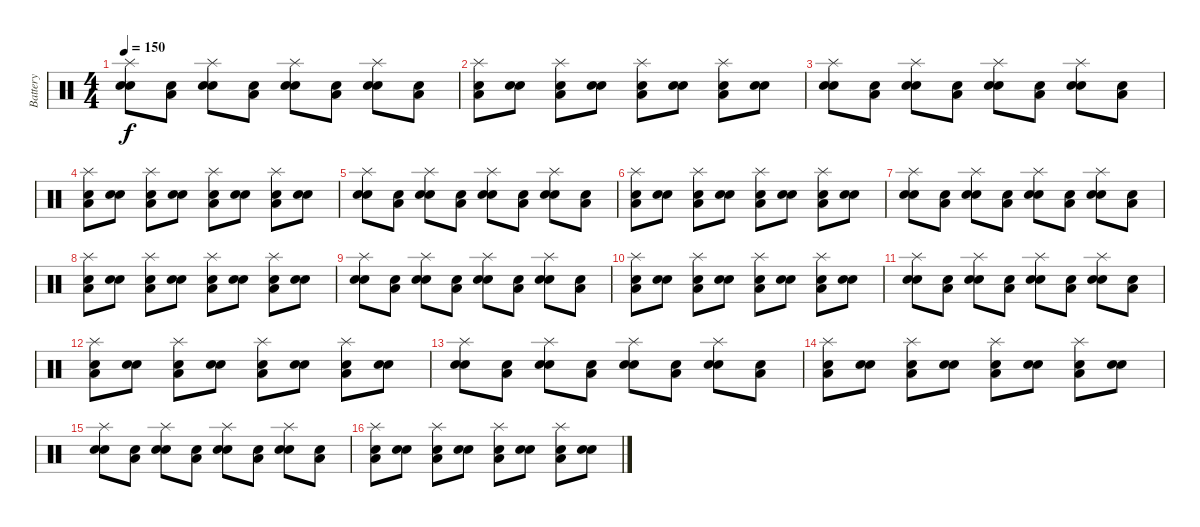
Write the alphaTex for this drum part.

\track ("Battery" "Battery") {instrument percussion}
\staff {score}
\articulation defaults
\ts (4 4)
\tempo 150
\clef neutral
\ks c
("Snare (hit) 2" "Splash (hit)" "Electric Snare (hit)").8{dy f} ("Snare (hit) 2" "Low Floor Tom (hit)").8 ("Snare (hit) 2" "Splash (hit)" "Electric Snare (hit)").8 ("Snare (hit) 2" "Low Floor Tom (hit)").8 ("Snare (hit) 2" "Splash (hit)" "Electric Snare (hit)").8 ("Snare (hit) 2" "Low Floor Tom (hit)").8 ("Snare (hit) 2" "Splash (hit)" "Electric Snare (hit)").8 ("Snare (hit) 2" "Low Floor Tom (hit)").8 |
("Snare (hit) 2" "Splash (hit)" "Low Floor Tom (hit)").8 ("Snare (hit) 2" "Electric Snare (hit)").8 ("Snare (hit) 2" "Splash (hit)" "Low Floor Tom (hit)").8 ("Snare (hit) 2" "Electric Snare (hit)").8 ("Snare (hit) 2" "Splash (hit)" "Low Floor Tom (hit)").8 ("Snare (hit) 2" "Electric Snare (hit)").8 ("Snare (hit) 2" "Splash (hit)" "Low Floor Tom (hit)").8 ("Snare (hit) 2" "Electric Snare (hit)").8 |
("Snare (hit) 2" "Splash (hit)" "Electric Snare (hit)").8 ("Snare (hit) 2" "Low Floor Tom (hit)").8 ("Snare (hit) 2" "Splash (hit)" "Electric Snare (hit)").8 ("Snare (hit) 2" "Low Floor Tom (hit)").8 ("Snare (hit) 2" "Splash (hit)" "Electric Snare (hit)").8 ("Snare (hit) 2" "Low Floor Tom (hit)").8 ("Snare (hit) 2" "Splash (hit)" "Electric Snare (hit)").8 ("Snare (hit) 2" "Low Floor Tom (hit)").8 |
("Snare (hit) 2" "Splash (hit)" "Low Floor Tom (hit)").8 ("Snare (hit) 2" "Electric Snare (hit)").8 ("Snare (hit) 2" "Splash (hit)" "Low Floor Tom (hit)").8 ("Snare (hit) 2" "Electric Snare (hit)").8 ("Snare (hit) 2" "Splash (hit)" "Low Floor Tom (hit)").8 ("Snare (hit) 2" "Electric Snare (hit)").8 ("Snare (hit) 2" "Splash (hit)" "Low Floor Tom (hit)").8 ("Snare (hit) 2" "Electric Snare (hit)").8 |
("Snare (hit) 2" "Splash (hit)" "Electric Snare (hit)").8 ("Snare (hit) 2" "Low Floor Tom (hit)").8 ("Snare (hit) 2" "Splash (hit)" "Electric Snare (hit)").8 ("Snare (hit) 2" "Low Floor Tom (hit)").8 ("Snare (hit) 2" "Splash (hit)" "Electric Snare (hit)").8 ("Snare (hit) 2" "Low Floor Tom (hit)").8 ("Snare (hit) 2" "Splash (hit)" "Electric Snare (hit)").8 ("Snare (hit) 2" "Low Floor Tom (hit)").8 |
("Snare (hit) 2" "Splash (hit)" "Low Floor Tom (hit)").8 ("Snare (hit) 2" "Electric Snare (hit)").8 ("Snare (hit) 2" "Splash (hit)" "Low Floor Tom (hit)").8 ("Snare (hit) 2" "Electric Snare (hit)").8 ("Snare (hit) 2" "Splash (hit)" "Low Floor Tom (hit)").8 ("Snare (hit) 2" "Electric Snare (hit)").8 ("Snare (hit) 2" "Splash (hit)" "Low Floor Tom (hit)").8 ("Snare (hit) 2" "Electric Snare (hit)").8 |
("Snare (hit) 2" "Splash (hit)" "Electric Snare (hit)").8 ("Snare (hit) 2" "Low Floor Tom (hit)").8 ("Snare (hit) 2" "Splash (hit)" "Electric Snare (hit)").8 ("Snare (hit) 2" "Low Floor Tom (hit)").8 ("Snare (hit) 2" "Splash (hit)" "Electric Snare (hit)").8 ("Snare (hit) 2" "Low Floor Tom (hit)").8 ("Snare (hit) 2" "Splash (hit)" "Electric Snare (hit)").8 ("Snare (hit) 2" "Low Floor Tom (hit)").8 |
("Snare (hit) 2" "Splash (hit)" "Low Floor Tom (hit)").8 ("Snare (hit) 2" "Electric Snare (hit)").8 ("Snare (hit) 2" "Splash (hit)" "Low Floor Tom (hit)").8 ("Snare (hit) 2" "Electric Snare (hit)").8 ("Snare (hit) 2" "Splash (hit)" "Low Floor Tom (hit)").8 ("Snare (hit) 2" "Electric Snare (hit)").8 ("Snare (hit) 2" "Splash (hit)" "Low Floor Tom (hit)").8 ("Snare (hit) 2" "Electric Snare (hit)").8 |
("Snare (hit) 2" "Splash (hit)" "Electric Snare (hit)").8 ("Snare (hit) 2" "Low Floor Tom (hit)").8 ("Snare (hit) 2" "Splash (hit)" "Electric Snare (hit)").8 ("Snare (hit) 2" "Low Floor Tom (hit)").8 ("Snare (hit) 2" "Splash (hit)" "Electric Snare (hit)").8 ("Snare (hit) 2" "Low Floor Tom (hit)").8 ("Snare (hit) 2" "Splash (hit)" "Electric Snare (hit)").8 ("Snare (hit) 2" "Low Floor Tom (hit)").8 |
("Snare (hit) 2" "Splash (hit)" "Low Floor Tom (hit)").8 ("Snare (hit) 2" "Electric Snare (hit)").8 ("Snare (hit) 2" "Splash (hit)" "Low Floor Tom (hit)").8 ("Snare (hit) 2" "Electric Snare (hit)").8 ("Snare (hit) 2" "Splash (hit)" "Low Floor Tom (hit)").8 ("Snare (hit) 2" "Electric Snare (hit)").8 ("Snare (hit) 2" "Splash (hit)" "Low Floor Tom (hit)").8 ("Snare (hit) 2" "Electric Snare (hit)").8 |
("Snare (hit) 2" "Splash (hit)" "Electric Snare (hit)").8 ("Snare (hit) 2" "Low Floor Tom (hit)").8 ("Snare (hit) 2" "Splash (hit)" "Electric Snare (hit)").8 ("Snare (hit) 2" "Low Floor Tom (hit)").8 ("Snare (hit) 2" "Splash (hit)" "Electric Snare (hit)").8 ("Snare (hit) 2" "Low Floor Tom (hit)").8 ("Snare (hit) 2" "Splash (hit)" "Electric Snare (hit)").8 ("Snare (hit) 2" "Low Floor Tom (hit)").8 |
("Snare (hit) 2" "Splash (hit)" "Low Floor Tom (hit)").8 ("Snare (hit) 2" "Electric Snare (hit)").8 ("Snare (hit) 2" "Splash (hit)" "Low Floor Tom (hit)").8 ("Snare (hit) 2" "Electric Snare (hit)").8 ("Snare (hit) 2" "Splash (hit)" "Low Floor Tom (hit)").8 ("Snare (hit) 2" "Electric Snare (hit)").8 ("Snare (hit) 2" "Splash (hit)" "Low Floor Tom (hit)").8 ("Snare (hit) 2" "Electric Snare (hit)").8 |
("Snare (hit) 2" "Splash (hit)" "Electric Snare (hit)").8 ("Snare (hit) 2" "Low Floor Tom (hit)").8 ("Snare (hit) 2" "Splash (hit)" "Electric Snare (hit)").8 ("Snare (hit) 2" "Low Floor Tom (hit)").8 ("Snare (hit) 2" "Splash (hit)" "Electric Snare (hit)").8 ("Snare (hit) 2" "Low Floor Tom (hit)").8 ("Snare (hit) 2" "Splash (hit)" "Electric Snare (hit)").8 ("Snare (hit) 2" "Low Floor Tom (hit)").8 |
("Snare (hit) 2" "Splash (hit)" "Low Floor Tom (hit)").8 ("Snare (hit) 2" "Electric Snare (hit)").8 ("Snare (hit) 2" "Splash (hit)" "Low Floor Tom (hit)").8 ("Snare (hit) 2" "Electric Snare (hit)").8 ("Snare (hit) 2" "Splash (hit)" "Low Floor Tom (hit)").8 ("Snare (hit) 2" "Electric Snare (hit)").8 ("Snare (hit) 2" "Splash (hit)" "Low Floor Tom (hit)").8 ("Snare (hit) 2" "Electric Snare (hit)").8 |
("Snare (hit) 2" "Splash (hit)" "Electric Snare (hit)").8 ("Snare (hit) 2" "Low Floor Tom (hit)").8 ("Snare (hit) 2" "Splash (hit)" "Electric Snare (hit)").8 ("Snare (hit) 2" "Low Floor Tom (hit)").8 ("Snare (hit) 2" "Splash (hit)" "Electric Snare (hit)").8 ("Snare (hit) 2" "Low Floor Tom (hit)").8 ("Snare (hit) 2" "Splash (hit)" "Electric Snare (hit)").8 ("Snare (hit) 2" "Low Floor Tom (hit)").8 |
("Snare (hit) 2" "Splash (hit)" "Low Floor Tom (hit)").8 ("Snare (hit) 2" "Electric Snare (hit)").8 ("Snare (hit) 2" "Splash (hit)" "Low Floor Tom (hit)").8 ("Snare (hit) 2" "Electric Snare (hit)").8 ("Snare (hit) 2" "Splash (hit)" "Low Floor Tom (hit)").8 ("Snare (hit) 2" "Electric Snare (hit)").8 ("Snare (hit) 2" "Splash (hit)" "Low Floor Tom (hit)").8 ("Snare (hit) 2" "Electric Snare (hit)").8
